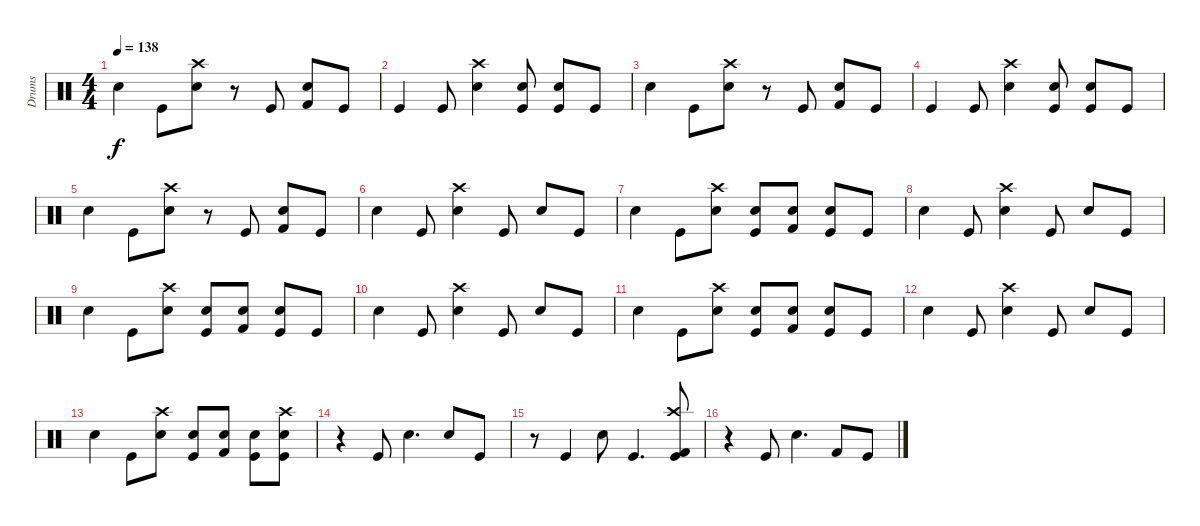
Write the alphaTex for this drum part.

\track ("Drums" "Drums") {instrument percussion}
\staff {score}
\articulation defaults
\ts (4 4)
\tempo 138
\clef neutral
\ks c "Snare (hit) 2".4{dy f} "Kick (hit)".8
("Crash high (hit)" "Snare (hit) 2").8 r.8 "Kick (hit)".8 ("Snare (hit) 2" "Kick (hit) 2").8 "Kick (hit)".8 |
"Kick (hit)".4 "Kick (hit)".8 ("Crash high (hit)" "Snare (hit) 2").4 ("Snare (hit) 2" "Kick (hit)").8 ("Snare (hit) 2" "Kick (hit)").8 "Kick (hit)".8 |
"Snare (hit) 2".4 "Kick (hit)".8 ("Crash high (hit)" "Snare (hit) 2").8 r.8 "Kick (hit)".8 ("Snare (hit) 2" "Kick (hit) 2").8 "Kick (hit)".8 |
"Kick (hit)".4 "Kick (hit)".8 ("Crash high (hit)" "Snare (hit) 2").4 ("Snare (hit) 2" "Kick (hit)").8 ("Snare (hit) 2" "Kick (hit)").8 "Kick (hit)".8 |
"Snare (hit) 2".4 "Kick (hit)".8 ("Crash high (hit)" "Snare (hit) 2").8 r.8 "Kick (hit)".8 ("Snare (hit) 2" "Kick (hit) 2").8 "Kick (hit)".8 |
"Snare (hit) 2".4 "Kick (hit)".8 ("Crash high (hit)" "Snare (hit) 2").4 "Kick (hit)".8 "Snare (hit) 2".8 "Kick (hit)".8 |
"Snare (hit) 2".4 "Kick (hit)".8 ("Crash high (hit)" "Snare (hit) 2").8 ("Snare (hit) 2" "Kick (hit)").8 ("Electric Snare (hit)" "Kick (hit) 2").8 ("Snare (hit) 2" "Kick (hit)").8 "Kick (hit)".8 |
"Snare (hit) 2".4 "Kick (hit)".8 ("Crash high (hit)" "Snare (hit) 2").4 "Kick (hit)".8 "Snare (hit) 2".8 "Kick (hit)".8 |
"Snare (hit) 2".4 "Kick (hit)".8 ("Crash high (hit)" "Snare (hit) 2").8 ("Snare (hit) 2" "Kick (hit)").8 ("Electric Snare (hit)" "Kick (hit) 2").8 ("Snare (hit) 2" "Kick (hit)").8 "Kick (hit)".8 |
"Snare (hit) 2".4 "Kick (hit)".8 ("Crash high (hit)" "Snare (hit) 2").4 "Kick (hit)".8 "Snare (hit) 2".8 "Kick (hit)".8 |
"Snare (hit) 2".4 "Kick (hit)".8 ("Crash high (hit)" "Snare (hit) 2").8 ("Snare (hit) 2" "Kick (hit)").8 ("Electric Snare (hit)" "Kick (hit) 2").8 ("Snare (hit) 2" "Kick (hit)").8 "Kick (hit)".8 |
"Snare (hit) 2".4 "Kick (hit)".8 ("Crash high (hit)" "Snare (hit) 2").4 "Kick (hit)".8 "Snare (hit) 2".8 "Kick (hit)".8 |
"Snare (hit) 2".4 "Kick (hit)".8 ("Crash high (hit)" "Snare (hit) 2").8 ("Snare (hit) 2" "Kick (hit)").8 ("Electric Snare (hit)" "Kick (hit) 2").8 ("Snare (hit) 2" "Kick (hit)").8 ("Crash high (hit)" "Snare (hit) 2" "Kick (hit)").8 |
r.4 "Kick (hit)".8 "Snare (hit) 2".4{d} "Snare (hit) 2".8 "Kick (hit)".8 |
r.8 "Kick (hit)".4 "Snare (hit) 2".8 "Kick (hit)".4{d} ("Crash high (hit)" "Kick (hit) 2" "Kick (hit)").8 |
r.4 "Kick (hit)".8 "Snare (hit) 2".4{d} "Kick (hit) 2".8 "Kick (hit)".8
